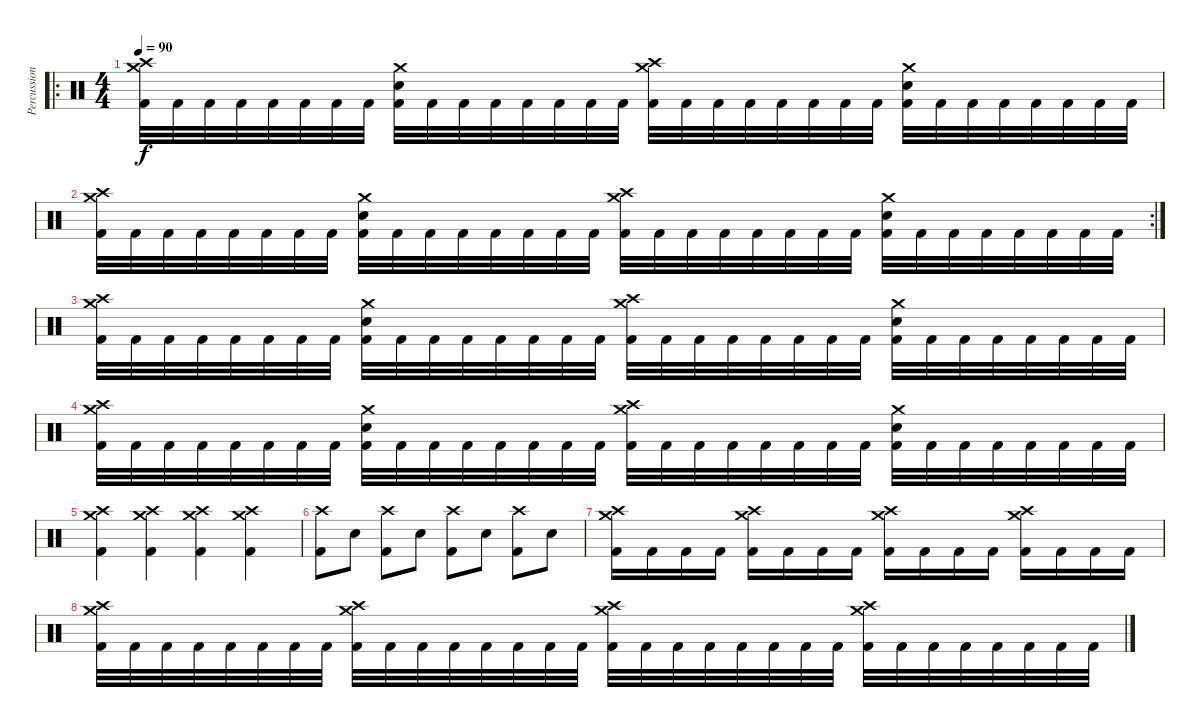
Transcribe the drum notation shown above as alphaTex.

\track ("Percussion" "Percussion") {instrument percussion}
\staff {score}
\articulation defaults
\ro
\ts (4 4)
\tempo 90
\clef neutral
\ks c
("Crash high (hit)" "Crash medium (hit)" "Kick (hit) 2").32{dy f} "Kick (hit) 2".32 "Kick (hit) 2".32 "Kick (hit) 2".32 "Kick (hit) 2".32 "Kick (hit) 2".32 "Kick (hit) 2".32 "Kick (hit) 2".32 ("Crash medium (hit)" "Snare (hit) 2" "Kick (hit) 2").32 "Kick (hit) 2".32 "Kick (hit) 2".32 "Kick (hit) 2".32 "Kick (hit) 2".32 "Kick (hit) 2".32 "Kick (hit) 2".32 "Kick (hit) 2".32 ("Crash high (hit)" "Crash medium (hit)" "Kick (hit) 2").32 "Kick (hit) 2".32 "Kick (hit) 2".32 "Kick (hit) 2".32 "Kick (hit) 2".32 "Kick (hit) 2".32 "Kick (hit) 2".32 "Kick (hit) 2".32 ("Crash medium (hit)" "Snare (hit) 2" "Kick (hit) 2").32 "Kick (hit) 2".32 "Kick (hit) 2".32 "Kick (hit) 2".32 "Kick (hit) 2".32 "Kick (hit) 2".32 "Kick (hit) 2".32 "Kick (hit) 2".32 |
\rc 2
("Crash high (hit)" "Crash medium (hit)" "Kick (hit) 2").32 "Kick (hit) 2".32 "Kick (hit) 2".32 "Kick (hit) 2".32 "Kick (hit) 2".32 "Kick (hit) 2".32 "Kick (hit) 2".32 "Kick (hit) 2".32 ("Crash medium (hit)" "Snare (hit) 2" "Kick (hit) 2").32 "Kick (hit) 2".32 "Kick (hit) 2".32 "Kick (hit) 2".32 "Kick (hit) 2".32 "Kick (hit) 2".32 "Kick (hit) 2".32 "Kick (hit) 2".32 ("Crash high (hit)" "Crash medium (hit)" "Kick (hit) 2").32 "Kick (hit) 2".32 "Kick (hit) 2".32 "Kick (hit) 2".32 "Kick (hit) 2".32 "Kick (hit) 2".32 "Kick (hit) 2".32 "Kick (hit) 2".32 ("Crash medium (hit)" "Snare (hit) 2" "Kick (hit) 2").32 "Kick (hit) 2".32 "Kick (hit) 2".32 "Kick (hit) 2".32 "Kick (hit) 2".32 "Kick (hit) 2".32 "Kick (hit) 2".32 "Kick (hit) 2".32 |
("Crash high (hit)" "Crash medium (hit)" "Kick (hit) 2").32 "Kick (hit) 2".32 "Kick (hit) 2".32 "Kick (hit) 2".32 "Kick (hit) 2".32 "Kick (hit) 2".32 "Kick (hit) 2".32 "Kick (hit) 2".32 ("Crash medium (hit)" "Snare (hit) 2" "Kick (hit) 2").32 "Kick (hit) 2".32 "Kick (hit) 2".32 "Kick (hit) 2".32 "Kick (hit) 2".32 "Kick (hit) 2".32 "Kick (hit) 2".32 "Kick (hit) 2".32 ("Crash high (hit)" "Crash medium (hit)" "Kick (hit) 2").32 "Kick (hit) 2".32 "Kick (hit) 2".32 "Kick (hit) 2".32 "Kick (hit) 2".32 "Kick (hit) 2".32 "Kick (hit) 2".32 "Kick (hit) 2".32 ("Crash medium (hit)" "Snare (hit) 2" "Kick (hit) 2").32 "Kick (hit) 2".32 "Kick (hit) 2".32 "Kick (hit) 2".32 "Kick (hit) 2".32 "Kick (hit) 2".32 "Kick (hit) 2".32 "Kick (hit) 2".32 |
("Crash high (hit)" "Crash medium (hit)" "Kick (hit) 2").32 "Kick (hit) 2".32 "Kick (hit) 2".32 "Kick (hit) 2".32 "Kick (hit) 2".32 "Kick (hit) 2".32 "Kick (hit) 2".32 "Kick (hit) 2".32 ("Crash medium (hit)" "Snare (hit) 2" "Kick (hit) 2").32 "Kick (hit) 2".32 "Kick (hit) 2".32 "Kick (hit) 2".32 "Kick (hit) 2".32 "Kick (hit) 2".32 "Kick (hit) 2".32 "Kick (hit) 2".32 ("Crash high (hit)" "Crash medium (hit)" "Kick (hit) 2").32 "Kick (hit) 2".32 "Kick (hit) 2".32 "Kick (hit) 2".32 "Kick (hit) 2".32 "Kick (hit) 2".32 "Kick (hit) 2".32 "Kick (hit) 2".32 ("Crash medium (hit)" "Snare (hit) 2" "Kick (hit) 2").32 "Kick (hit) 2".32 "Kick (hit) 2".32 "Kick (hit) 2".32 "Kick (hit) 2".32 "Kick (hit) 2".32 "Kick (hit) 2".32 "Kick (hit) 2".32 |
("Crash high (hit)" "Crash medium (hit)" "Kick (hit) 2").4 ("Crash high (hit)" "Crash medium (hit)" "Kick (hit) 2").4 ("Crash high (hit)" "Crash medium (hit)" "Kick (hit) 2").4 ("Crash high (hit)" "Crash medium (hit)" "Kick (hit) 2").4 |
("Crash high (hit)" "Kick (hit) 2").8 "Snare (hit) 2".8 ("Crash high (hit)" "Kick (hit) 2").8 "Snare (hit) 2".8 ("Crash high (hit)" "Kick (hit) 2").8 "Snare (hit) 2".8 ("Crash high (hit)" "Kick (hit) 2").8 "Snare (hit) 2".8 |
("Crash high (hit)" "Crash medium (hit)" "Kick (hit) 2").16 "Kick (hit) 2".16 "Kick (hit) 2".16 "Kick (hit) 2".16 ("Crash high (hit)" "Crash medium (hit)" "Kick (hit) 2").16 "Kick (hit) 2".16 "Kick (hit) 2".16 "Kick (hit) 2".16 ("Crash high (hit)" "Crash medium (hit)" "Kick (hit) 2").16 "Kick (hit) 2".16 "Kick (hit) 2".16 "Kick (hit) 2".16 ("Crash high (hit)" "Crash medium (hit)" "Kick (hit) 2").16 "Kick (hit) 2".16 "Kick (hit) 2".16 "Kick (hit) 2".16 |
("Crash high (hit)" "Crash medium (hit)" "Kick (hit) 2").32 "Kick (hit) 2".32 "Kick (hit) 2".32 "Kick (hit) 2".32 "Kick (hit) 2".32 "Kick (hit) 2".32 "Kick (hit) 2".32 "Kick (hit) 2".32 ("Crash high (hit)" "Crash medium (hit)" "Kick (hit) 2").32 "Kick (hit) 2".32 "Kick (hit) 2".32 "Kick (hit) 2".32 "Kick (hit) 2".32 "Kick (hit) 2".32 "Kick (hit) 2".32 "Kick (hit) 2".32 ("Crash high (hit)" "Crash medium (hit)" "Kick (hit) 2").32 "Kick (hit) 2".32 "Kick (hit) 2".32 "Kick (hit) 2".32 "Kick (hit) 2".32 "Kick (hit) 2".32 "Kick (hit) 2".32 "Kick (hit) 2".32 ("Crash high (hit)" "Crash medium (hit)" "Kick (hit) 2").32 "Kick (hit) 2".32 "Kick (hit) 2".32 "Kick (hit) 2".32 "Kick (hit) 2".32 "Kick (hit) 2".32 "Kick (hit) 2".32 "Kick (hit) 2".32
